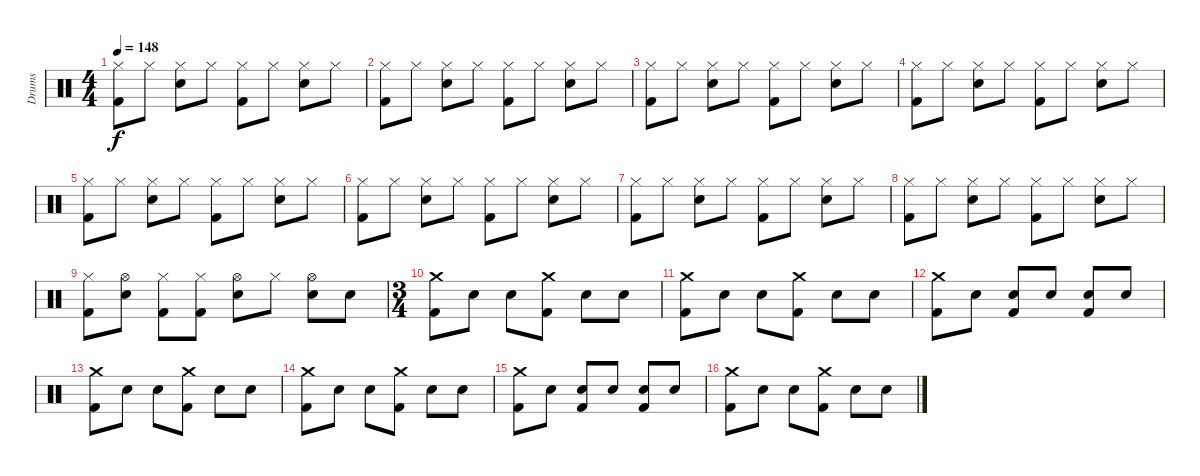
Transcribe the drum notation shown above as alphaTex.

\track ("Drums" "Drums") {instrument percussion}
\staff {score}
\articulation defaults
\ts (4 4)
\tempo 148
\clef neutral
\ks c
("Kick (hit) 2" "Hi-Hat (closed)").8{dy f} "Hi-Hat (closed)".8 ("Snare (hit) 2" "Hi-Hat (closed)").8 "Hi-Hat (closed)".8 ("Kick (hit) 2" "Hi-Hat (closed)").8 "Hi-Hat (closed)".8 ("Snare (hit) 2" "Hi-Hat (closed)").8 "Hi-Hat (closed)".8 |
("Kick (hit) 2" "Hi-Hat (closed)").8 "Hi-Hat (closed)".8 ("Snare (hit) 2" "Hi-Hat (closed)").8 "Hi-Hat (closed)".8 ("Kick (hit) 2" "Hi-Hat (closed)").8 "Hi-Hat (closed)".8 ("Snare (hit) 2" "Hi-Hat (closed)").8 "Hi-Hat (closed)".8 |
("Kick (hit) 2" "Hi-Hat (closed)").8 "Hi-Hat (closed)".8 ("Snare (hit) 2" "Hi-Hat (closed)").8 "Hi-Hat (closed)".8 ("Kick (hit) 2" "Hi-Hat (closed)").8 "Hi-Hat (closed)".8 ("Snare (hit) 2" "Hi-Hat (closed)").8 "Hi-Hat (closed)".8 |
("Kick (hit) 2" "Hi-Hat (closed)").8 "Hi-Hat (closed)".8 ("Snare (hit) 2" "Hi-Hat (closed)").8 "Hi-Hat (closed)".8 ("Kick (hit) 2" "Hi-Hat (closed)").8 "Hi-Hat (closed)".8 ("Snare (hit) 2" "Hi-Hat (closed)").8 "Hi-Hat (closed)".8 |
("Kick (hit) 2" "Hi-Hat (closed)").8 "Hi-Hat (closed)".8 ("Snare (hit) 2" "Hi-Hat (closed)").8 "Hi-Hat (closed)".8 ("Kick (hit) 2" "Hi-Hat (closed)").8 "Hi-Hat (closed)".8 ("Snare (hit) 2" "Hi-Hat (closed)").8 "Hi-Hat (closed)".8 |
("Kick (hit) 2" "Hi-Hat (closed)").8 "Hi-Hat (closed)".8 ("Snare (hit) 2" "Hi-Hat (closed)").8 "Hi-Hat (closed)".8 ("Kick (hit) 2" "Hi-Hat (closed)").8 "Hi-Hat (closed)".8 ("Snare (hit) 2" "Hi-Hat (closed)").8 "Hi-Hat (closed)".8 |
("Kick (hit) 2" "Hi-Hat (closed)").8 "Hi-Hat (closed)".8 ("Snare (hit) 2" "Hi-Hat (closed)").8 "Hi-Hat (closed)".8 ("Kick (hit) 2" "Hi-Hat (closed)").8 "Hi-Hat (closed)".8 ("Snare (hit) 2" "Hi-Hat (closed)").8 "Hi-Hat (closed)".8 |
("Kick (hit) 2" "Hi-Hat (closed)").8 "Hi-Hat (closed)".8 ("Snare (hit) 2" "Hi-Hat (closed)").8 "Hi-Hat (closed)".8 ("Kick (hit) 2" "Hi-Hat (closed)").8 "Hi-Hat (closed)".8 ("Snare (hit) 2" "Hi-Hat (closed)").8 "Hi-Hat (closed)".8 |
("Kick (hit) 2" "Hi-Hat (closed)").8 ("Snare (hit) 2" "Hi-Hat (open)").8 ("Kick (hit) 2" "Hi-Hat (closed)").8 ("Kick (hit) 2" "Hi-Hat (closed)").8 ("Snare (hit) 2" "Hi-Hat (open)").8 "Hi-Hat (closed)".8 ("Snare (hit) 2" "Hi-Hat (open)").8 "Snare (hit) 2".8 |
\ts (3 4)
("Kick (hit) 2" "Crash medium (hit)").8 "Snare (hit) 2".8 "Snare (hit) 2".8 ("Kick (hit) 2" "Crash medium (hit)").8 "Snare (hit) 2".8 "Snare (hit) 2".8 |
("Kick (hit) 2" "Crash medium (hit)").8 "Snare (hit) 2".8 "Snare (hit) 2".8 ("Kick (hit) 2" "Crash medium (hit)").8 "Snare (hit) 2".8 "Snare (hit) 2".8 |
("Kick (hit) 2" "Crash medium (hit)").8 "Snare (hit) 2".8 ("Snare (hit) 2" "Kick (hit) 2").8 "Snare (hit) 2".8 ("Snare (hit) 2" "Kick (hit) 2").8 "Snare (hit) 2".8 |
("Kick (hit) 2" "Crash medium (hit)").8 "Snare (hit) 2".8 "Snare (hit) 2".8 ("Kick (hit) 2" "Crash medium (hit)").8 "Snare (hit) 2".8 "Snare (hit) 2".8 |
("Kick (hit) 2" "Crash medium (hit)").8 "Snare (hit) 2".8 "Snare (hit) 2".8 ("Kick (hit) 2" "Crash medium (hit)").8 "Snare (hit) 2".8 "Snare (hit) 2".8 |
("Kick (hit) 2" "Crash medium (hit)").8 "Snare (hit) 2".8 ("Snare (hit) 2" "Kick (hit) 2").8 "Snare (hit) 2".8 ("Snare (hit) 2" "Kick (hit) 2").8 "Snare (hit) 2".8 |
("Kick (hit) 2" "Crash medium (hit)").8 "Snare (hit) 2".8 "Snare (hit) 2".8 ("Kick (hit) 2" "Crash medium (hit)").8 "Snare (hit) 2".8 "Snare (hit) 2".8
